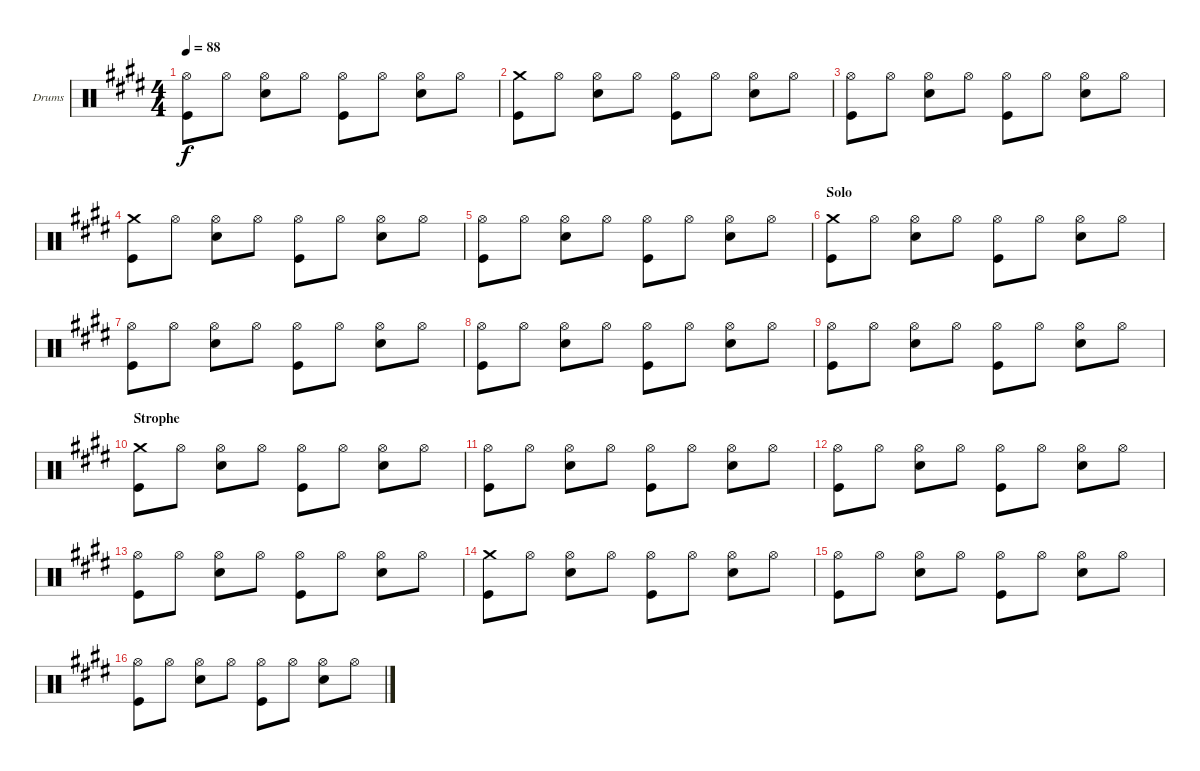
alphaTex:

\defaultSystemsLayout 4
\bracketExtendMode groupsimilarinstruments
\firstSystemTrackNameOrientation horizontal
\otherSystemsTrackNameOrientation horizontal
\track ("Drumkit" "Drums") {instrument percussion}
\staff {score}
\articulation defaults
\ts (4 4)
\tempo 88
\clef neutral
\ks e
("Kick (hit)" "Hi-Hat (open)").8{dy f} "Hi-Hat (open)".8 ("Hi-Hat (open)" "Snare (hit) 2").8 "Hi-Hat (open)".8 ("Kick (hit)" "Hi-Hat (open)").8 "Hi-Hat (open)".8 ("Hi-Hat (open)" "Snare (hit) 2").8 "Hi-Hat (open)".8 |
("Kick (hit)" "Crash medium (hit)").8 "Hi-Hat (open)".8 ("Hi-Hat (open)" "Snare (hit) 2").8 "Hi-Hat (open)".8 ("Kick (hit)" "Hi-Hat (open)").8 "Hi-Hat (open)".8 ("Hi-Hat (open)" "Snare (hit) 2").8 "Hi-Hat (open)".8 |
("Kick (hit)" "Hi-Hat (open)").8 "Hi-Hat (open)".8 ("Hi-Hat (open)" "Snare (hit) 2").8 "Hi-Hat (open)".8 ("Kick (hit)" "Hi-Hat (open)").8 "Hi-Hat (open)".8 ("Hi-Hat (open)" "Snare (hit) 2").8 "Hi-Hat (open)".8 |
("Kick (hit)" "Crash medium (hit)").8 "Hi-Hat (open)".8 ("Hi-Hat (open)" "Snare (hit) 2").8 "Hi-Hat (open)".8 ("Kick (hit)" "Hi-Hat (open)").8 "Hi-Hat (open)".8 ("Hi-Hat (open)" "Snare (hit) 2").8 "Hi-Hat (open)".8 |
("Kick (hit)" "Hi-Hat (open)").8 "Hi-Hat (open)".8 ("Hi-Hat (open)" "Snare (hit) 2").8 "Hi-Hat (open)".8 ("Kick (hit)" "Hi-Hat (open)").8 "Hi-Hat (open)".8 ("Hi-Hat (open)" "Snare (hit) 2").8 "Hi-Hat (open)".8 |
\section ("" "Solo")
("Kick (hit)" "Crash medium (hit)").8 "Hi-Hat (open)".8 ("Hi-Hat (open)" "Snare (hit) 2").8 "Hi-Hat (open)".8 ("Kick (hit)" "Hi-Hat (open)").8 "Hi-Hat (open)".8 ("Hi-Hat (open)" "Snare (hit) 2").8 "Hi-Hat (open)".8 |
("Kick (hit)" "Hi-Hat (open)").8 "Hi-Hat (open)".8 ("Hi-Hat (open)" "Snare (hit) 2").8 "Hi-Hat (open)".8 ("Kick (hit)" "Hi-Hat (open)").8 "Hi-Hat (open)".8 ("Hi-Hat (open)" "Snare (hit) 2").8 "Hi-Hat (open)".8 |
("Kick (hit)" "Hi-Hat (open)").8 "Hi-Hat (open)".8 ("Hi-Hat (open)" "Snare (hit) 2").8 "Hi-Hat (open)".8 ("Kick (hit)" "Hi-Hat (open)").8 "Hi-Hat (open)".8 ("Hi-Hat (open)" "Snare (hit) 2").8 "Hi-Hat (open)".8 |
("Kick (hit)" "Hi-Hat (open)").8 "Hi-Hat (open)".8 ("Hi-Hat (open)" "Snare (hit) 2").8 "Hi-Hat (open)".8 ("Kick (hit)" "Hi-Hat (open)").8 "Hi-Hat (open)".8 ("Hi-Hat (open)" "Snare (hit) 2").8 "Hi-Hat (open)".8 |
\section ("" "Strophe")
("Kick (hit)" "Crash medium (hit)").8 "Hi-Hat (open)".8 ("Hi-Hat (open)" "Snare (hit) 2").8 "Hi-Hat (open)".8 ("Kick (hit)" "Hi-Hat (open)").8 "Hi-Hat (open)".8 ("Hi-Hat (open)" "Snare (hit) 2").8 "Hi-Hat (open)".8 |
("Kick (hit)" "Hi-Hat (open)").8 "Hi-Hat (open)".8 ("Hi-Hat (open)" "Snare (hit) 2").8 "Hi-Hat (open)".8 ("Kick (hit)" "Hi-Hat (open)").8 "Hi-Hat (open)".8 ("Hi-Hat (open)" "Snare (hit) 2").8 "Hi-Hat (open)".8 |
("Kick (hit)" "Hi-Hat (open)").8 "Hi-Hat (open)".8 ("Hi-Hat (open)" "Snare (hit) 2").8 "Hi-Hat (open)".8 ("Kick (hit)" "Hi-Hat (open)").8 "Hi-Hat (open)".8 ("Hi-Hat (open)" "Snare (hit) 2").8 "Hi-Hat (open)".8 |
("Kick (hit)" "Hi-Hat (open)").8 "Hi-Hat (open)".8 ("Hi-Hat (open)" "Snare (hit) 2").8 "Hi-Hat (open)".8 ("Kick (hit)" "Hi-Hat (open)").8 "Hi-Hat (open)".8 ("Hi-Hat (open)" "Snare (hit) 2").8 "Hi-Hat (open)".8 |
("Kick (hit)" "Crash medium (hit)").8 "Hi-Hat (open)".8 ("Hi-Hat (open)" "Snare (hit) 2").8 "Hi-Hat (open)".8 ("Kick (hit)" "Hi-Hat (open)").8 "Hi-Hat (open)".8 ("Hi-Hat (open)" "Snare (hit) 2").8 "Hi-Hat (open)".8 |
("Kick (hit)" "Hi-Hat (open)").8 "Hi-Hat (open)".8 ("Hi-Hat (open)" "Snare (hit) 2").8 "Hi-Hat (open)".8 ("Kick (hit)" "Hi-Hat (open)").8 "Hi-Hat (open)".8 ("Hi-Hat (open)" "Snare (hit) 2").8 "Hi-Hat (open)".8 |
("Kick (hit)" "Hi-Hat (open)").8 "Hi-Hat (open)".8 ("Hi-Hat (open)" "Snare (hit) 2").8 "Hi-Hat (open)".8 ("Kick (hit)" "Hi-Hat (open)").8 "Hi-Hat (open)".8 ("Hi-Hat (open)" "Snare (hit) 2").8 "Hi-Hat (open)".8
